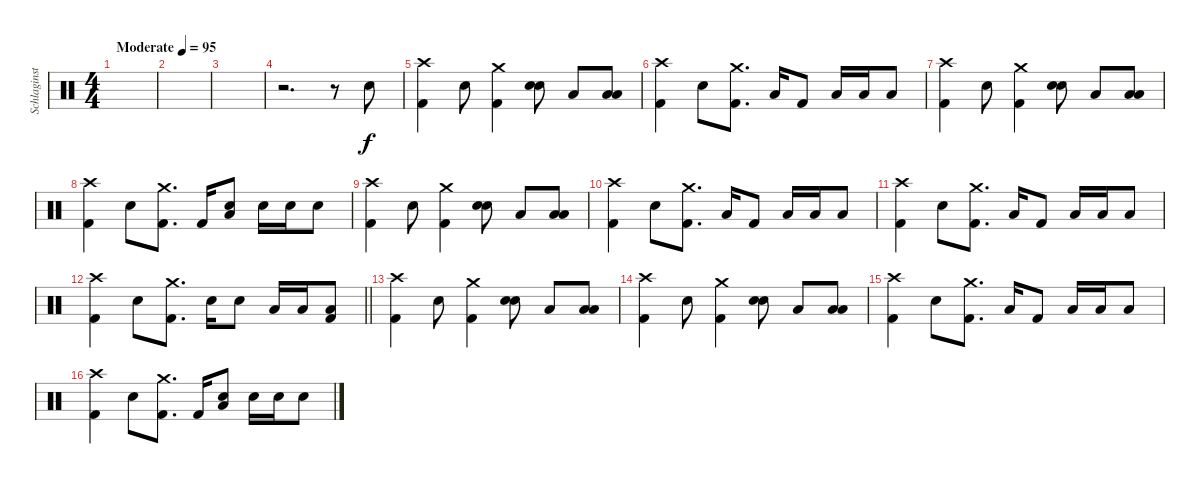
\track ("Schlaginstrumente - Auswahl" "Schlaginst") {instrument percussion}
\staff {score}
\articulation defaults
\ts (4 4)
\tempo (95 "Moderate")
\clef neutral
\ks c
|
|
|
r.2{d} r.8 "Snare (hit) 2".8 |
("Crash high (hit)" "Kick (hit) 2").4 "Snare (hit) 2".8 ("Crash medium (hit)" "Kick (hit) 2").4 ("Snare (hit) 2" "Snare (hit) 2").8{bd 240} "Low Floor Tom (hit)".8 ("Low Tom (hit)" "Low Floor Tom (hit)").8 |
("Crash high (hit)" "Kick (hit) 2").4 "Snare (hit) 2".8 ("Crash medium (hit)" "Kick (hit) 2").8{d} "Low Floor Tom (hit)".16 "Kick (hit) 2".8 "Low Floor Tom (hit)".16 "Low Tom (hit)".16 "Low Tom (hit)".8 |
("Crash high (hit)" "Kick (hit) 2").4 "Snare (hit) 2".8 ("Crash medium (hit)" "Kick (hit) 2").4 ("Snare (hit) 2" "Snare (hit) 2").8{bd 240} "Low Floor Tom (hit)".8 ("Low Tom (hit)" "Low Floor Tom (hit)").8 |
("Crash high (hit)" "Kick (hit) 2").4 "Snare (hit) 2".8 ("Crash medium (hit)" "Kick (hit) 2").8{d} "Kick (hit) 2".16 ("Snare (hit) 2" "Low Floor Tom (hit)").8 "Snare (hit) 2".16 "Snare (hit) 2".16 "Snare (hit) 2".8 |
("Crash high (hit)" "Kick (hit) 2").4 "Snare (hit) 2".8 ("Crash medium (hit)" "Kick (hit) 2").4 ("Snare (hit) 2" "Snare (hit) 2").8{bd 240} "Low Floor Tom (hit)".8 ("Low Tom (hit)" "Low Floor Tom (hit)").8 |
("Crash high (hit)" "Kick (hit) 2").4 "Snare (hit) 2".8 ("Crash medium (hit)" "Kick (hit) 2").8{d} "Low Floor Tom (hit)".16 "Kick (hit) 2".8 "Low Floor Tom (hit)".16 "Low Tom (hit)".16 "Low Tom (hit)".8 |
("Crash high (hit)" "Kick (hit) 2").4 "Snare (hit) 2".8 ("Crash medium (hit)" "Kick (hit) 2").8{d} "Low Floor Tom (hit)".16 "Kick (hit) 2".8 "Low Floor Tom (hit)".16 "Low Tom (hit)".16 "Low Tom (hit)".8 |
\barLineRight lightlight
("Crash high (hit)" "Kick (hit) 2").4 "Snare (hit) 2".8 ("Crash medium (hit)" "Kick (hit) 2").8{d} "Snare (hit) 2".16 "Snare (hit) 2".8 "Low Floor Tom (hit)".16 "Low Floor Tom (hit)".16 ("Low Floor Tom (hit)" "Kick (hit) 2").8 |
("Crash high (hit)" "Kick (hit) 2").4 "Snare (hit) 2".8 ("Crash medium (hit)" "Kick (hit) 2").4 ("Snare (hit) 2" "Snare (hit) 2").8{bd 240} "Low Floor Tom (hit)".8 ("Low Tom (hit)" "Low Floor Tom (hit)").8 |
("Crash high (hit)" "Kick (hit) 2").4 "Snare (hit) 2".8 ("Crash medium (hit)" "Kick (hit) 2").4 ("Snare (hit) 2" "Snare (hit) 2").8{bd 240} "Low Floor Tom (hit)".8 ("Low Tom (hit)" "Low Floor Tom (hit)").8 |
("Crash high (hit)" "Kick (hit) 2").4 "Snare (hit) 2".8 ("Crash medium (hit)" "Kick (hit) 2").8{d} "Low Floor Tom (hit)".16 "Kick (hit) 2".8 "Low Floor Tom (hit)".16 "Low Tom (hit)".16 "Low Tom (hit)".8 |
("Crash high (hit)" "Kick (hit) 2").4 "Snare (hit) 2".8 ("Crash medium (hit)" "Kick (hit) 2").8{d} "Kick (hit) 2".16 ("Snare (hit) 2" "Low Floor Tom (hit)").8 "Snare (hit) 2".16 "Snare (hit) 2".16 "Snare (hit) 2".8
